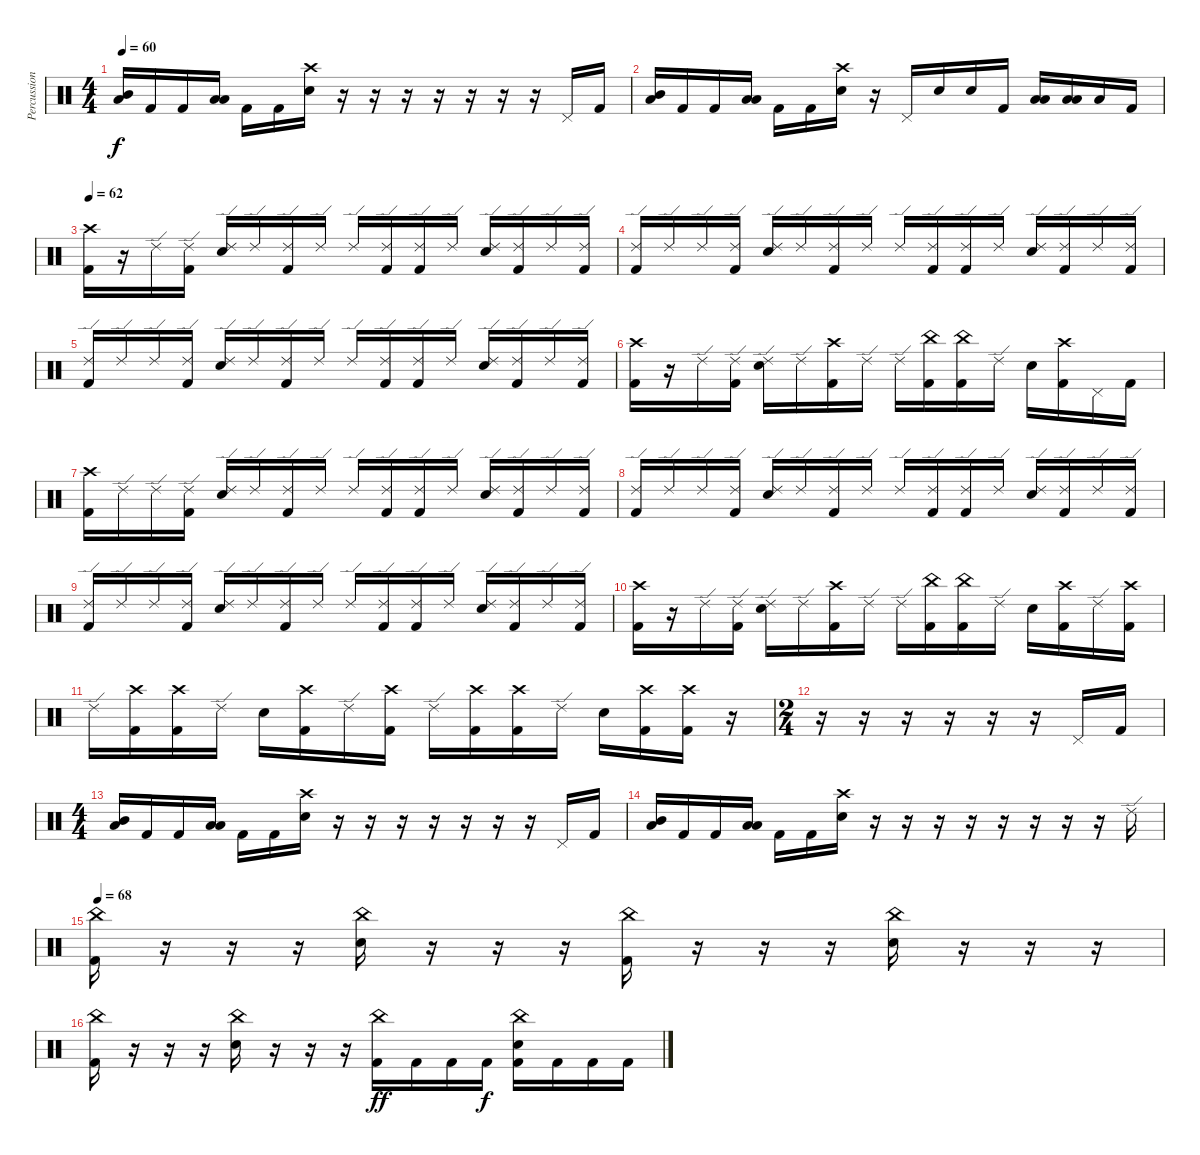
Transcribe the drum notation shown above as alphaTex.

\track ("Percussion" "Percussion") {instrument percussion}
\staff {score}
\articulation defaults
\ts (4 4)
\tempo 60
\clef neutral
\ks c
("Mid Tom (hit)" "Low Tom (hit)").16{dy f} "Kick (hit) 2".16 "Kick (hit) 2".16 ("Low Tom (hit)" "Low Floor Tom (hit)").16 "Kick (hit) 2".16 "Kick (hit) 2".16 ("Crash high (hit)" "Snare (hit) 2").16 r.16 r.16 r.16 r.16 r.16 r.16 r.16 "Pedal Hi-Hat (hit)".16 "Kick (hit) 2".16 |
("Mid Tom (hit)" "Low Tom (hit)").16 "Kick (hit) 2".16 "Kick (hit) 2".16 ("Low Tom (hit)" "Low Floor Tom (hit)").16 "Kick (hit) 2".16 "Kick (hit) 2".16 ("Crash high (hit)" "Snare (hit) 2").16 r.16 "Pedal Hi-Hat (hit)".16 "Snare (hit) 2".16 "Snare (hit) 2".16 "Kick (hit) 2".16 ("Low Tom (hit)" "Low Floor Tom (hit)").16 ("Low Tom (hit)" "Low Floor Tom (hit)").16 "Low Floor Tom (hit)".16 "Kick (hit) 2".16 |
\tempo 62
("Crash high (hit)" "Kick (hit) 2").16 r.16 "Ride (edge) 2".16 ("Ride (edge) 2" "Kick (hit) 2").16 ("Ride (edge) 2" "Snare (hit) 2").16 "Ride (edge) 2".16 ("Ride (edge) 2" "Kick (hit) 2").16 "Ride (edge) 2".16 "Ride (edge) 2".16 ("Ride (edge) 2" "Kick (hit) 2").16 ("Ride (edge) 2" "Kick (hit) 2").16 "Ride (edge) 2".16 ("Ride (edge) 2" "Snare (hit) 2").16 ("Ride (edge) 2" "Kick (hit) 2").16 "Ride (edge) 2".16 ("Ride (edge) 2" "Kick (hit) 2").16 |
("Ride (edge) 2" "Kick (hit) 2").16 "Ride (edge) 2".16 "Ride (edge) 2".16 ("Ride (edge) 2" "Kick (hit) 2").16 ("Ride (edge) 2" "Snare (hit) 2").16 "Ride (edge) 2".16 ("Ride (edge) 2" "Kick (hit) 2").16 "Ride (edge) 2".16 "Ride (edge) 2".16 ("Ride (edge) 2" "Kick (hit) 2").16 ("Ride (edge) 2" "Kick (hit) 2").16 "Ride (edge) 2".16 ("Ride (edge) 2" "Snare (hit) 2").16 ("Ride (edge) 2" "Kick (hit) 2").16 "Ride (edge) 2".16 ("Ride (edge) 2" "Kick (hit) 2").16 |
("Ride (edge) 2" "Kick (hit) 2").16 "Ride (edge) 2".16 "Ride (edge) 2".16 ("Ride (edge) 2" "Kick (hit) 2").16 ("Ride (edge) 2" "Snare (hit) 2").16 "Ride (edge) 2".16 ("Ride (edge) 2" "Kick (hit) 2").16 "Ride (edge) 2".16 "Ride (edge) 2".16 ("Ride (edge) 2" "Kick (hit) 2").16 ("Ride (edge) 2" "Kick (hit) 2").16 "Ride (edge) 2".16 ("Ride (edge) 2" "Snare (hit) 2").16 ("Ride (edge) 2" "Kick (hit) 2").16 "Ride (edge) 2".16 ("Ride (edge) 2" "Kick (hit) 2").16 |
("Crash high (hit)" "Kick (hit) 2").16 r.16 "Ride (edge) 2".16 ("Ride (edge) 2" "Kick (hit) 2").16 ("Ride (edge) 2" "Snare (hit) 2").16 "Ride (edge) 2".16 ("Crash high (hit)" "Kick (hit) 2").16 "Ride (edge) 2".16 "Ride (edge) 2".16 ("China (hit)" "Kick (hit) 2").16 ("China (hit)" "Kick (hit) 2").16 "Ride (edge) 2".16 "Snare (hit) 2".16 ("Crash high (hit)" "Kick (hit) 2").16 "Pedal Hi-Hat (hit)".16 "Kick (hit) 2".16 |
("Crash high (hit)" "Kick (hit) 2").16 "Ride (edge) 2".16 "Ride (edge) 2".16 ("Ride (edge) 2" "Kick (hit) 2").16 ("Ride (edge) 2" "Snare (hit) 2").16 "Ride (edge) 2".16 ("Ride (edge) 2" "Kick (hit) 2").16 "Ride (edge) 2".16 "Ride (edge) 2".16 ("Ride (edge) 2" "Kick (hit) 2").16 ("Ride (edge) 2" "Kick (hit) 2").16 "Ride (edge) 2".16 ("Ride (edge) 2" "Snare (hit) 2").16 ("Ride (edge) 2" "Kick (hit) 2").16 "Ride (edge) 2".16 ("Ride (edge) 2" "Kick (hit) 2").16 |
("Ride (edge) 2" "Kick (hit) 2").16 "Ride (edge) 2".16 "Ride (edge) 2".16 ("Ride (edge) 2" "Kick (hit) 2").16 ("Ride (edge) 2" "Snare (hit) 2").16 "Ride (edge) 2".16 ("Ride (edge) 2" "Kick (hit) 2").16 "Ride (edge) 2".16 "Ride (edge) 2".16 ("Ride (edge) 2" "Kick (hit) 2").16 ("Ride (edge) 2" "Kick (hit) 2").16 "Ride (edge) 2".16 ("Ride (edge) 2" "Snare (hit) 2").16 ("Ride (edge) 2" "Kick (hit) 2").16 "Ride (edge) 2".16 ("Ride (edge) 2" "Kick (hit) 2").16 |
("Ride (edge) 2" "Kick (hit) 2").16 "Ride (edge) 2".16 "Ride (edge) 2".16 ("Ride (edge) 2" "Kick (hit) 2").16 ("Ride (edge) 2" "Snare (hit) 2").16 "Ride (edge) 2".16 ("Ride (edge) 2" "Kick (hit) 2").16 "Ride (edge) 2".16 "Ride (edge) 2".16 ("Ride (edge) 2" "Kick (hit) 2").16 ("Ride (edge) 2" "Kick (hit) 2").16 "Ride (edge) 2".16 ("Ride (edge) 2" "Snare (hit) 2").16 ("Ride (edge) 2" "Kick (hit) 2").16 "Ride (edge) 2".16 ("Ride (edge) 2" "Kick (hit) 2").16 |
("Crash high (hit)" "Kick (hit) 2").16 r.16 "Ride (edge) 2".16 ("Ride (edge) 2" "Kick (hit) 2").16 ("Ride (edge) 2" "Snare (hit) 2").16 "Ride (edge) 2".16 ("Crash high (hit)" "Kick (hit) 2").16 "Ride (edge) 2".16 "Ride (edge) 2".16 ("China (hit)" "Kick (hit) 2").16 ("China (hit)" "Kick (hit) 2").16 "Ride (edge) 2".16 "Snare (hit) 2".16 ("Crash high (hit)" "Kick (hit) 2").16 "Ride (edge) 2".16 ("Crash high (hit)" "Kick (hit) 2").16 |
"Ride (edge) 2".16 ("Crash high (hit)" "Kick (hit) 2").16 ("Crash high (hit)" "Kick (hit) 2").16 "Ride (edge) 2".16 "Snare (hit) 2".16 ("Crash high (hit)" "Kick (hit) 2").16 "Ride (edge) 2".16 ("Crash high (hit)" "Kick (hit) 2").16 "Ride (edge) 2".16 ("Crash high (hit)" "Kick (hit) 2").16 ("Crash high (hit)" "Kick (hit) 2").16 "Ride (edge) 2".16 "Snare (hit) 2".16 ("Crash high (hit)" "Kick (hit) 2").16 ("Crash high (hit)" "Kick (hit) 2").16 r.16 |
\ts (2 4)
r.16 r.16 r.16 r.16 r.16 r.16 "Pedal Hi-Hat (hit)".16 "Kick (hit) 2".16 |
\ts (4 4)
("Mid Tom (hit)" "Low Tom (hit)").16 "Kick (hit) 2".16 "Kick (hit) 2".16 ("Low Tom (hit)" "Low Floor Tom (hit)").16 "Kick (hit) 2".16 "Kick (hit) 2".16 ("Crash high (hit)" "Snare (hit) 2").16 r.16 r.16 r.16 r.16 r.16 r.16 r.16 "Pedal Hi-Hat (hit)".16 "Kick (hit) 2".16 |
("Mid Tom (hit)" "Low Tom (hit)").16 "Kick (hit) 2".16 "Kick (hit) 2".16 ("Low Tom (hit)" "Low Floor Tom (hit)").16 "Kick (hit) 2".16 "Kick (hit) 2".16 ("Crash high (hit)" "Snare (hit) 2").16 r.16 r.16 r.16 r.16 r.16 r.16 r.16 r.16 "Ride (edge) 2".16 |
\tempo 68
("China (hit)" "Kick (hit) 2").16 r.16 r.16 r.16 ("China (hit)" "Snare (hit) 2").16 r.16 r.16 r.16 ("China (hit)" "Kick (hit) 2").16 r.16 r.16 r.16 ("China (hit)" "Snare (hit) 2").16 r.16 r.16 r.16 |
("China (hit)" "Kick (hit) 2").16 r.16 r.16 r.16 ("China (hit)" "Snare (hit) 2").16 r.16 r.16 r.16 ("China (hit)" "Kick (hit) 2").16{dy ff} "Kick (hit) 2".16 "Kick (hit) 2".16 "Kick (hit) 2".16{dy f} ("China (hit)" "Snare (hit) 2" "Kick (hit) 2").16 "Kick (hit) 2".16 "Kick (hit) 2".16 "Kick (hit) 2".16
